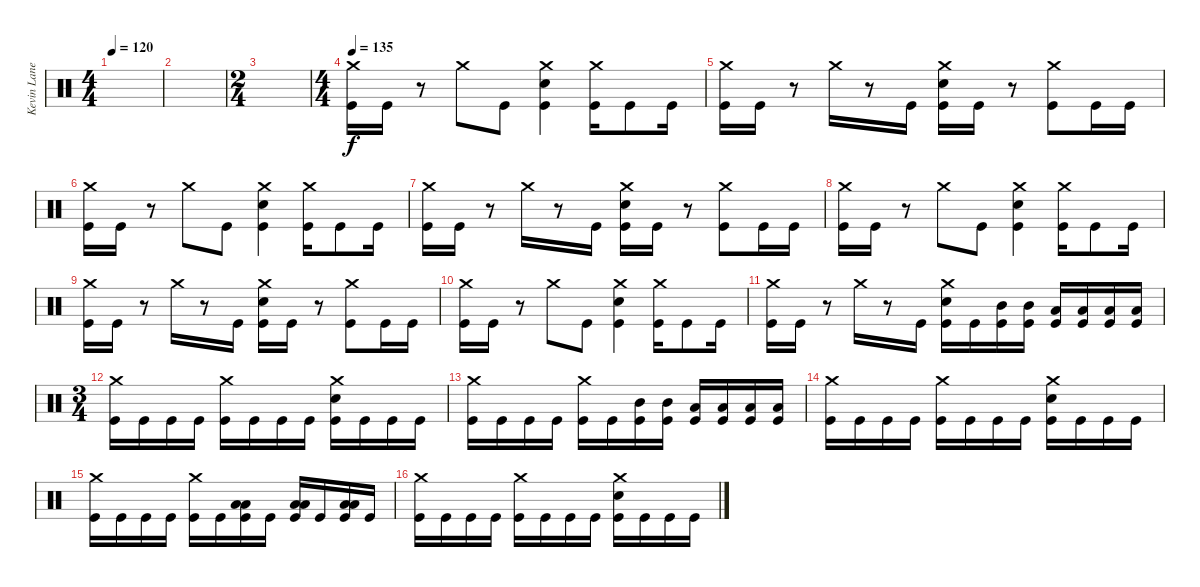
\track ("Kevin Lane" "Kevin Lane") {instrument percussion}
\staff {score}
\articulation defaults
\ts (4 4)
\tempo 120
\clef neutral
\ks c
|
|
\ts (2 4)
|
\ts (4 4)
\tempo 135
("Crash medium (hit)" "Kick (hit)").16 "Kick (hit)".16 r.8 "Crash medium (hit)".8 "Kick (hit)".8 ("Crash medium (hit)" "Snare (hit) 2" "Kick (hit)").4 ("Crash medium (hit)" "Kick (hit)").16 "Kick (hit)".8 "Kick (hit)".16 |
("Crash medium (hit)" "Kick (hit)").16 "Kick (hit)".16 r.8 "Crash medium (hit)".16 r.8 "Kick (hit)".16 ("Crash medium (hit)" "Snare (hit) 2" "Kick (hit)").16 "Kick (hit)".16 r.8 ("Crash medium (hit)" "Kick (hit)").8 "Kick (hit)".16 "Kick (hit)".16 |
("Crash medium (hit)" "Kick (hit)").16 "Kick (hit)".16 r.8 "Crash medium (hit)".8 "Kick (hit)".8 ("Crash medium (hit)" "Snare (hit) 2" "Kick (hit)").4 ("Crash medium (hit)" "Kick (hit)").16 "Kick (hit)".8 "Kick (hit)".16 |
("Crash medium (hit)" "Kick (hit)").16 "Kick (hit)".16 r.8 "Crash medium (hit)".16 r.8 "Kick (hit)".16 ("Crash medium (hit)" "Snare (hit) 2" "Kick (hit)").16 "Kick (hit)".16 r.8 ("Crash medium (hit)" "Kick (hit)").8 "Kick (hit)".16 "Kick (hit)".16 |
("Crash medium (hit)" "Kick (hit)").16 "Kick (hit)".16 r.8 "Crash medium (hit)".8 "Kick (hit)".8 ("Crash medium (hit)" "Snare (hit) 2" "Kick (hit)").4 ("Crash medium (hit)" "Kick (hit)").16 "Kick (hit)".8 "Kick (hit)".16 |
("Crash medium (hit)" "Kick (hit)").16 "Kick (hit)".16 r.8 "Crash medium (hit)".16 r.8 "Kick (hit)".16 ("Crash medium (hit)" "Snare (hit) 2" "Kick (hit)").16 "Kick (hit)".16 r.8 ("Crash medium (hit)" "Kick (hit)").8 "Kick (hit)".16 "Kick (hit)".16 |
("Crash medium (hit)" "Kick (hit)").16 "Kick (hit)".16 r.8 "Crash medium (hit)".8 "Kick (hit)".8 ("Crash medium (hit)" "Snare (hit) 2" "Kick (hit)").4 ("Crash medium (hit)" "Kick (hit)").16 "Kick (hit)".8 "Kick (hit)".16 |
("Crash medium (hit)" "Kick (hit)").16 "Kick (hit)".16 r.8 "Crash medium (hit)".16 r.8 "Kick (hit)".16 ("Crash medium (hit)" "Snare (hit) 2" "Kick (hit)").16 "Kick (hit)".16 ("Mid Tom (hit)" "Kick (hit)").16 ("Mid Tom (hit)" "Kick (hit)").16 ("Low Tom (hit)" "Kick (hit)").16 ("Low Tom (hit)" "Kick (hit)").16 ("Low Floor Tom (hit)" "Kick (hit)").16 ("Low Floor Tom (hit)" "Kick (hit)").16 |
\ts (3 4)
("Crash medium (hit)" "Kick (hit)").16 "Kick (hit)".16 "Kick (hit)".16 "Kick (hit)".16 ("Crash medium (hit)" "Kick (hit)").16 "Kick (hit)".16 "Kick (hit)".16 "Kick (hit)".16 ("Crash medium (hit)" "Snare (hit) 2" "Kick (hit)").16 "Kick (hit)".16 "Kick (hit)".16 "Kick (hit)".16 |
("Crash medium (hit)" "Kick (hit)").16 "Kick (hit)".16 "Kick (hit)".16 "Kick (hit)".16 ("Crash medium (hit)" "Kick (hit)").16 "Kick (hit)".16 ("Mid Tom (hit)" "Kick (hit)").16 ("Mid Tom (hit)" "Kick (hit)").16 ("Low Tom (hit)" "Kick (hit)").16 ("Low Tom (hit)" "Kick (hit)").16 ("Low Floor Tom (hit)" "Kick (hit)").16 ("Low Floor Tom (hit)" "Kick (hit)").16 |
("Crash medium (hit)" "Kick (hit)").16 "Kick (hit)".16 "Kick (hit)".16 "Kick (hit)".16 ("Crash medium (hit)" "Kick (hit)").16 "Kick (hit)".16 "Kick (hit)".16 "Kick (hit)".16 ("Crash medium (hit)" "Snare (hit) 2" "Kick (hit)").16 "Kick (hit)".16 "Kick (hit)".16 "Kick (hit)".16 |
("Crash medium (hit)" "Kick (hit)").16 "Kick (hit)".16 "Kick (hit)".16 "Kick (hit)".16 ("Crash medium (hit)" "Kick (hit)").16 "Kick (hit)".16 ("Low Tom (hit)" "Low Floor Tom (hit)" "Kick (hit)").16 "Kick (hit)".16 ("Low Tom (hit)" "Low Floor Tom (hit)" "Kick (hit)").16 "Kick (hit)".16 ("Low Tom (hit)" "Low Floor Tom (hit)" "Kick (hit)").16 "Kick (hit)".16 |
("Crash medium (hit)" "Kick (hit)").16 "Kick (hit)".16 "Kick (hit)".16 "Kick (hit)".16 ("Crash medium (hit)" "Kick (hit)").16 "Kick (hit)".16 "Kick (hit)".16 "Kick (hit)".16 ("Crash medium (hit)" "Snare (hit) 2" "Kick (hit)").16 "Kick (hit)".16 "Kick (hit)".16 "Kick (hit)".16
